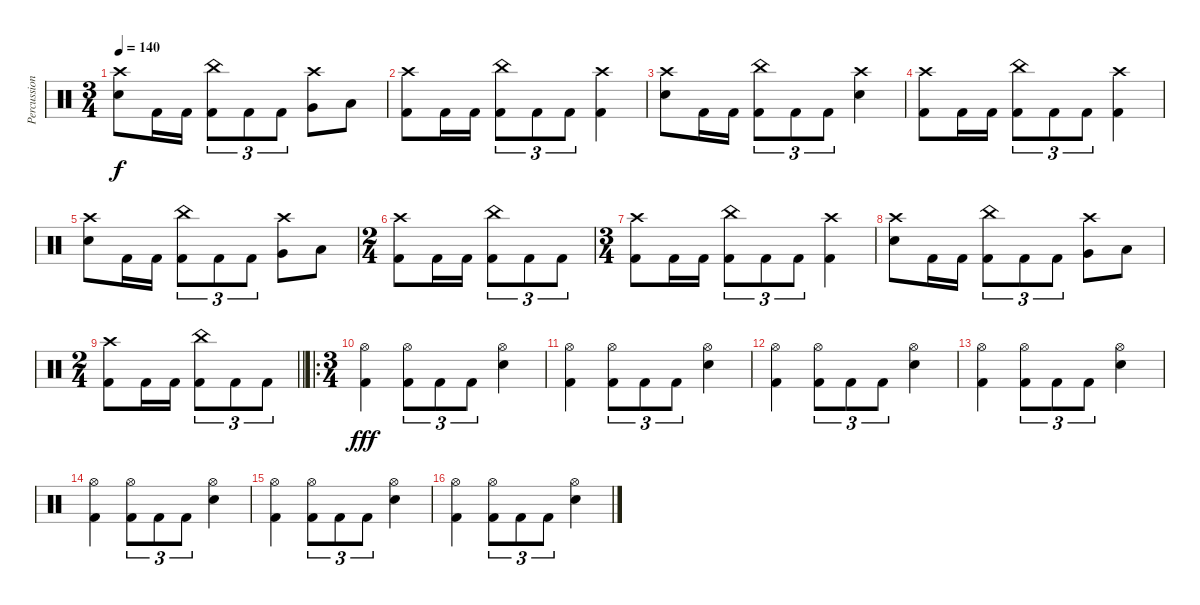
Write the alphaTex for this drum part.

\track ("Percussions" "Percussion") {instrument percussion}
\staff {score}
\articulation defaults
\ts (3 4)
\tempo 140
\clef neutral
\ks c
("Crash high (hit)" "Electric Snare (hit)").8{dy f} "Kick (hit) 2".16 "Kick (hit) 2".16 ("China (hit)" "Kick (hit) 2").8{tu (3 2)} "Kick (hit) 2".8{tu (3 2)} "Kick (hit) 2".8{tu (3 2)} ("Crash high (hit)" "Very Low Tom (hit)").8 "Low Floor Tom (hit)".8 |
("Crash high (hit)" "Kick (hit) 2").8 "Kick (hit) 2".16 "Kick (hit) 2".16 ("China (hit)" "Kick (hit) 2").8{tu (3 2)} "Kick (hit) 2".8{tu (3 2)} "Kick (hit) 2".8{tu (3 2)} ("Crash high (hit)" "Kick (hit) 2").4 |
("Crash high (hit)" "Electric Snare (hit)").8 "Kick (hit) 2".16 "Kick (hit) 2".16 ("China (hit)" "Kick (hit) 2").8{tu (3 2)} "Kick (hit) 2".8{tu (3 2)} "Kick (hit) 2".8{tu (3 2)} ("Crash high (hit)" "Electric Snare (hit)").4 |
("Crash high (hit)" "Kick (hit) 2").8 "Kick (hit) 2".16 "Kick (hit) 2".16 ("China (hit)" "Kick (hit) 2").8{tu (3 2)} "Kick (hit) 2".8{tu (3 2)} "Kick (hit) 2".8{tu (3 2)} ("Crash high (hit)" "Kick (hit) 2").4 |
("Crash high (hit)" "Electric Snare (hit)").8 "Kick (hit) 2".16 "Kick (hit) 2".16 ("China (hit)" "Kick (hit) 2").8{tu (3 2)} "Kick (hit) 2".8{tu (3 2)} "Kick (hit) 2".8{tu (3 2)} ("Crash high (hit)" "Very Low Tom (hit)").8 "Low Floor Tom (hit)".8 |
\ts (2 4)
("Crash high (hit)" "Kick (hit) 2").8 "Kick (hit) 2".16 "Kick (hit) 2".16 ("China (hit)" "Kick (hit) 2").8{tu (3 2)} "Kick (hit) 2".8{tu (3 2)} "Kick (hit) 2".8{tu (3 2)} |
\ts (3 4)
("Crash high (hit)" "Kick (hit) 2").8 "Kick (hit) 2".16 "Kick (hit) 2".16 ("China (hit)" "Kick (hit) 2").8{tu (3 2)} "Kick (hit) 2".8{tu (3 2)} "Kick (hit) 2".8{tu (3 2)} ("Crash high (hit)" "Kick (hit) 2").4 |
("Crash high (hit)" "Electric Snare (hit)").8 "Kick (hit) 2".16 "Kick (hit) 2".16 ("China (hit)" "Kick (hit) 2").8{tu (3 2)} "Kick (hit) 2".8{tu (3 2)} "Kick (hit) 2".8{tu (3 2)} ("Crash high (hit)" "Very Low Tom (hit)").8 "Low Floor Tom (hit)".8 |
\ts (2 4)
\barLineRight lightlight
("Crash high (hit)" "Kick (hit) 2").8 "Kick (hit) 2".16 "Kick (hit) 2".16 ("China (hit)" "Kick (hit) 2").8{tu (3 2)} "Kick (hit) 2".8{tu (3 2)} "Kick (hit) 2".8{tu (3 2)} |
\ro
\ts (3 4)
\section ("" "")
("Hi-Hat (open)" "Kick (hit) 2").4{dy fff} ("Hi-Hat (open)" "Kick (hit) 2").8{tu (3 2)} "Kick (hit) 2".8{tu (3 2)} "Kick (hit) 2".8{tu (3 2)} ("Hi-Hat (open)" "Electric Snare (hit)").4 |
("Hi-Hat (open)" "Kick (hit) 2").4 ("Hi-Hat (open)" "Kick (hit) 2").8{tu (3 2)} "Kick (hit) 2".8{tu (3 2)} "Kick (hit) 2".8{tu (3 2)} ("Hi-Hat (open)" "Electric Snare (hit)").4 |
("Hi-Hat (open)" "Kick (hit) 2").4 ("Hi-Hat (open)" "Kick (hit) 2").8{tu (3 2)} "Kick (hit) 2".8{tu (3 2)} "Kick (hit) 2".8{tu (3 2)} ("Hi-Hat (open)" "Electric Snare (hit)").4 |
("Hi-Hat (open)" "Kick (hit) 2").4 ("Hi-Hat (open)" "Kick (hit) 2").8{tu (3 2)} "Kick (hit) 2".8{tu (3 2)} "Kick (hit) 2".8{tu (3 2)} ("Hi-Hat (open)" "Electric Snare (hit)").4 |
("Hi-Hat (open)" "Kick (hit) 2").4 ("Hi-Hat (open)" "Kick (hit) 2").8{tu (3 2)} "Kick (hit) 2".8{tu (3 2)} "Kick (hit) 2".8{tu (3 2)} ("Hi-Hat (open)" "Electric Snare (hit)").4 |
("Hi-Hat (open)" "Kick (hit) 2").4 ("Hi-Hat (open)" "Kick (hit) 2").8{tu (3 2)} "Kick (hit) 2".8{tu (3 2)} "Kick (hit) 2".8{tu (3 2)} ("Hi-Hat (open)" "Electric Snare (hit)").4 |
("Hi-Hat (open)" "Kick (hit) 2").4 ("Hi-Hat (open)" "Kick (hit) 2").8{tu (3 2)} "Kick (hit) 2".8{tu (3 2)} "Kick (hit) 2".8{tu (3 2)} ("Hi-Hat (open)" "Electric Snare (hit)").4
